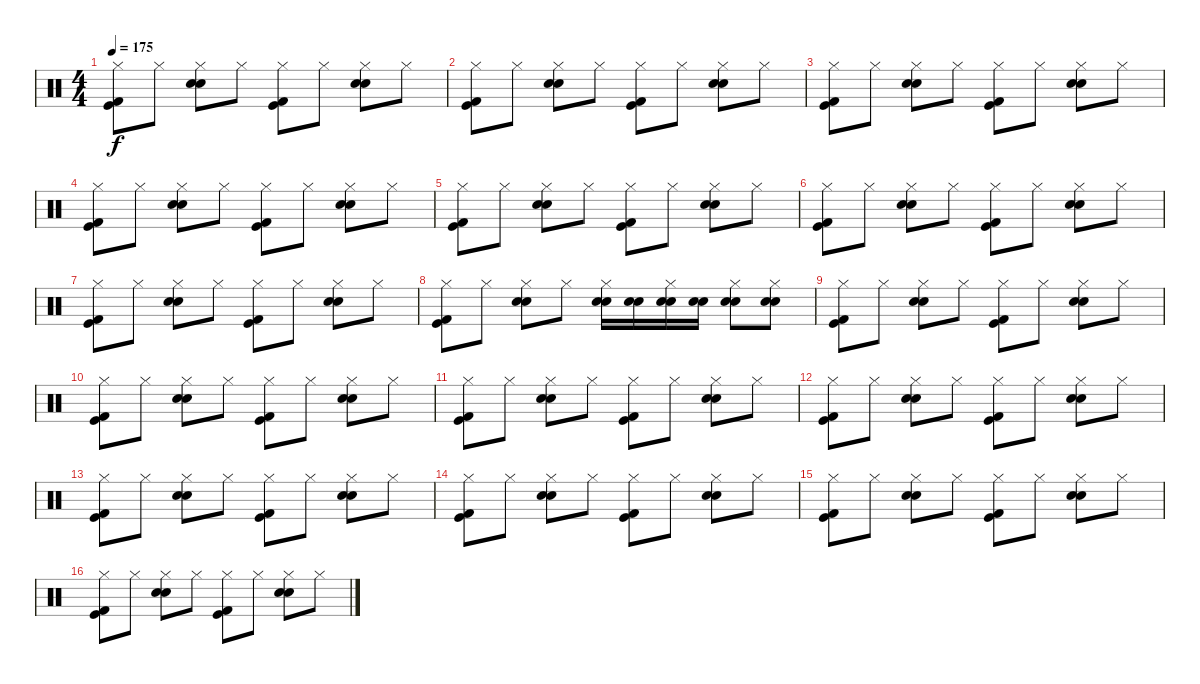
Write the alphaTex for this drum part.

\track "" {instrument percussion}
\staff {score}
\articulation defaults
\ts (4 4)
\tempo 175
\clef neutral
\ks c
("Kick (hit) 2" "Kick (hit)" "Hi-Hat (closed)").8{dy f} "Hi-Hat (closed)".8 ("Electric Snare (hit)" "Snare (hit) 2" "Hi-Hat (closed)").8 "Hi-Hat (closed)".8 ("Hi-Hat (closed)" "Kick (hit)" "Kick (hit) 2").8 "Hi-Hat (closed)".8 ("Electric Snare (hit)" "Snare (hit) 2" "Hi-Hat (closed)").8 "Hi-Hat (closed)".8 |
("Hi-Hat (closed)" "Kick (hit)" "Kick (hit) 2").8 "Hi-Hat (closed)".8 ("Electric Snare (hit)" "Snare (hit) 2" "Hi-Hat (closed)").8 "Hi-Hat (closed)".8 ("Hi-Hat (closed)" "Kick (hit)" "Kick (hit) 2").8 "Hi-Hat (closed)".8 ("Electric Snare (hit)" "Snare (hit) 2" "Hi-Hat (closed)").8 "Hi-Hat (closed)".8 |
("Kick (hit) 2" "Kick (hit)" "Hi-Hat (closed)").8 "Hi-Hat (closed)".8 ("Electric Snare (hit)" "Snare (hit) 2" "Hi-Hat (closed)").8 "Hi-Hat (closed)".8 ("Hi-Hat (closed)" "Kick (hit)" "Kick (hit) 2").8 "Hi-Hat (closed)".8 ("Electric Snare (hit)" "Snare (hit) 2" "Hi-Hat (closed)").8 "Hi-Hat (closed)".8 |
("Hi-Hat (closed)" "Kick (hit)" "Kick (hit) 2").8 "Hi-Hat (closed)".8 ("Electric Snare (hit)" "Snare (hit) 2" "Hi-Hat (closed)").8 "Hi-Hat (closed)".8 ("Hi-Hat (closed)" "Kick (hit)" "Kick (hit) 2").8 "Hi-Hat (closed)".8 ("Electric Snare (hit)" "Snare (hit) 2" "Hi-Hat (closed)").8 "Hi-Hat (closed)".8 |
("Hi-Hat (closed)" "Kick (hit)" "Kick (hit) 2").8 "Hi-Hat (closed)".8 ("Electric Snare (hit)" "Snare (hit) 2" "Hi-Hat (closed)").8 "Hi-Hat (closed)".8 ("Hi-Hat (closed)" "Kick (hit)" "Kick (hit) 2").8 "Hi-Hat (closed)".8 ("Electric Snare (hit)" "Snare (hit) 2" "Hi-Hat (closed)").8 "Hi-Hat (closed)".8 |
("Hi-Hat (closed)" "Kick (hit)" "Kick (hit) 2").8 "Hi-Hat (closed)".8 ("Electric Snare (hit)" "Snare (hit) 2" "Hi-Hat (closed)").8 "Hi-Hat (closed)".8 ("Hi-Hat (closed)" "Kick (hit)" "Kick (hit) 2").8 "Hi-Hat (closed)".8 ("Electric Snare (hit)" "Snare (hit) 2" "Hi-Hat (closed)").8 "Hi-Hat (closed)".8 |
("Hi-Hat (closed)" "Kick (hit)" "Kick (hit) 2").8 "Hi-Hat (closed)".8 ("Electric Snare (hit)" "Snare (hit) 2" "Hi-Hat (closed)").8 "Hi-Hat (closed)".8 ("Hi-Hat (closed)" "Kick (hit)" "Kick (hit) 2").8 "Hi-Hat (closed)".8 ("Electric Snare (hit)" "Snare (hit) 2" "Hi-Hat (closed)").8 "Hi-Hat (closed)".8 |
("Hi-Hat (closed)" "Kick (hit)" "Kick (hit) 2").8 "Hi-Hat (closed)".8 ("Electric Snare (hit)" "Snare (hit) 2" "Hi-Hat (closed)").8 "Hi-Hat (closed)".8 ("Hi-Hat (closed)" "Snare (hit) 2" "Electric Snare (hit)").16 ("Snare (hit) 2" "Electric Snare (hit)").16 ("Snare (hit) 2" "Electric Snare (hit)" "Hi-Hat (closed)").16 ("Snare (hit) 2" "Electric Snare (hit)").16 ("Hi-Hat (closed)" "Snare (hit) 2" "Electric Snare (hit)").8 ("Electric Snare (hit)" "Snare (hit) 2" "Hi-Hat (closed)").8 |
("Kick (hit) 2" "Kick (hit)" "Hi-Hat (closed)").8 "Hi-Hat (closed)".8 ("Electric Snare (hit)" "Snare (hit) 2" "Hi-Hat (closed)").8 "Hi-Hat (closed)".8 ("Hi-Hat (closed)" "Kick (hit)" "Kick (hit) 2").8 "Hi-Hat (closed)".8 ("Electric Snare (hit)" "Snare (hit) 2" "Hi-Hat (closed)").8 "Hi-Hat (closed)".8 |
("Hi-Hat (closed)" "Kick (hit)" "Kick (hit) 2").8 "Hi-Hat (closed)".8 ("Electric Snare (hit)" "Snare (hit) 2" "Hi-Hat (closed)").8 "Hi-Hat (closed)".8 ("Hi-Hat (closed)" "Kick (hit)" "Kick (hit) 2").8 "Hi-Hat (closed)".8 ("Electric Snare (hit)" "Snare (hit) 2" "Hi-Hat (closed)").8 "Hi-Hat (closed)".8 |
("Hi-Hat (closed)" "Kick (hit)" "Kick (hit) 2").8 "Hi-Hat (closed)".8 ("Electric Snare (hit)" "Snare (hit) 2" "Hi-Hat (closed)").8 "Hi-Hat (closed)".8 ("Hi-Hat (closed)" "Kick (hit)" "Kick (hit) 2").8 "Hi-Hat (closed)".8 ("Electric Snare (hit)" "Snare (hit) 2" "Hi-Hat (closed)").8 "Hi-Hat (closed)".8 |
("Hi-Hat (closed)" "Kick (hit)" "Kick (hit) 2").8 "Hi-Hat (closed)".8 ("Electric Snare (hit)" "Snare (hit) 2" "Hi-Hat (closed)").8 "Hi-Hat (closed)".8 ("Hi-Hat (closed)" "Kick (hit)" "Kick (hit) 2").8 "Hi-Hat (closed)".8 ("Electric Snare (hit)" "Snare (hit) 2" "Hi-Hat (closed)").8 "Hi-Hat (closed)".8 |
("Hi-Hat (closed)" "Kick (hit)" "Kick (hit) 2").8 "Hi-Hat (closed)".8 ("Electric Snare (hit)" "Snare (hit) 2" "Hi-Hat (closed)").8 "Hi-Hat (closed)".8 ("Hi-Hat (closed)" "Kick (hit)" "Kick (hit) 2").8 "Hi-Hat (closed)".8 ("Electric Snare (hit)" "Snare (hit) 2" "Hi-Hat (closed)").8 "Hi-Hat (closed)".8 |
("Hi-Hat (closed)" "Kick (hit)" "Kick (hit) 2").8 "Hi-Hat (closed)".8 ("Electric Snare (hit)" "Snare (hit) 2" "Hi-Hat (closed)").8 "Hi-Hat (closed)".8 ("Hi-Hat (closed)" "Kick (hit)" "Kick (hit) 2").8 "Hi-Hat (closed)".8 ("Electric Snare (hit)" "Snare (hit) 2" "Hi-Hat (closed)").8 "Hi-Hat (closed)".8 |
("Hi-Hat (closed)" "Kick (hit)" "Kick (hit) 2").8 "Hi-Hat (closed)".8 ("Electric Snare (hit)" "Snare (hit) 2" "Hi-Hat (closed)").8 "Hi-Hat (closed)".8 ("Hi-Hat (closed)" "Kick (hit)" "Kick (hit) 2").8 "Hi-Hat (closed)".8 ("Electric Snare (hit)" "Snare (hit) 2" "Hi-Hat (closed)").8 "Hi-Hat (closed)".8 |
("Hi-Hat (closed)" "Kick (hit)" "Kick (hit) 2").8 "Hi-Hat (closed)".8 ("Electric Snare (hit)" "Snare (hit) 2" "Hi-Hat (closed)").8 "Hi-Hat (closed)".8 ("Hi-Hat (closed)" "Kick (hit)" "Kick (hit) 2").8 "Hi-Hat (closed)".8 ("Electric Snare (hit)" "Snare (hit) 2" "Hi-Hat (closed)").8 "Hi-Hat (closed)".8
